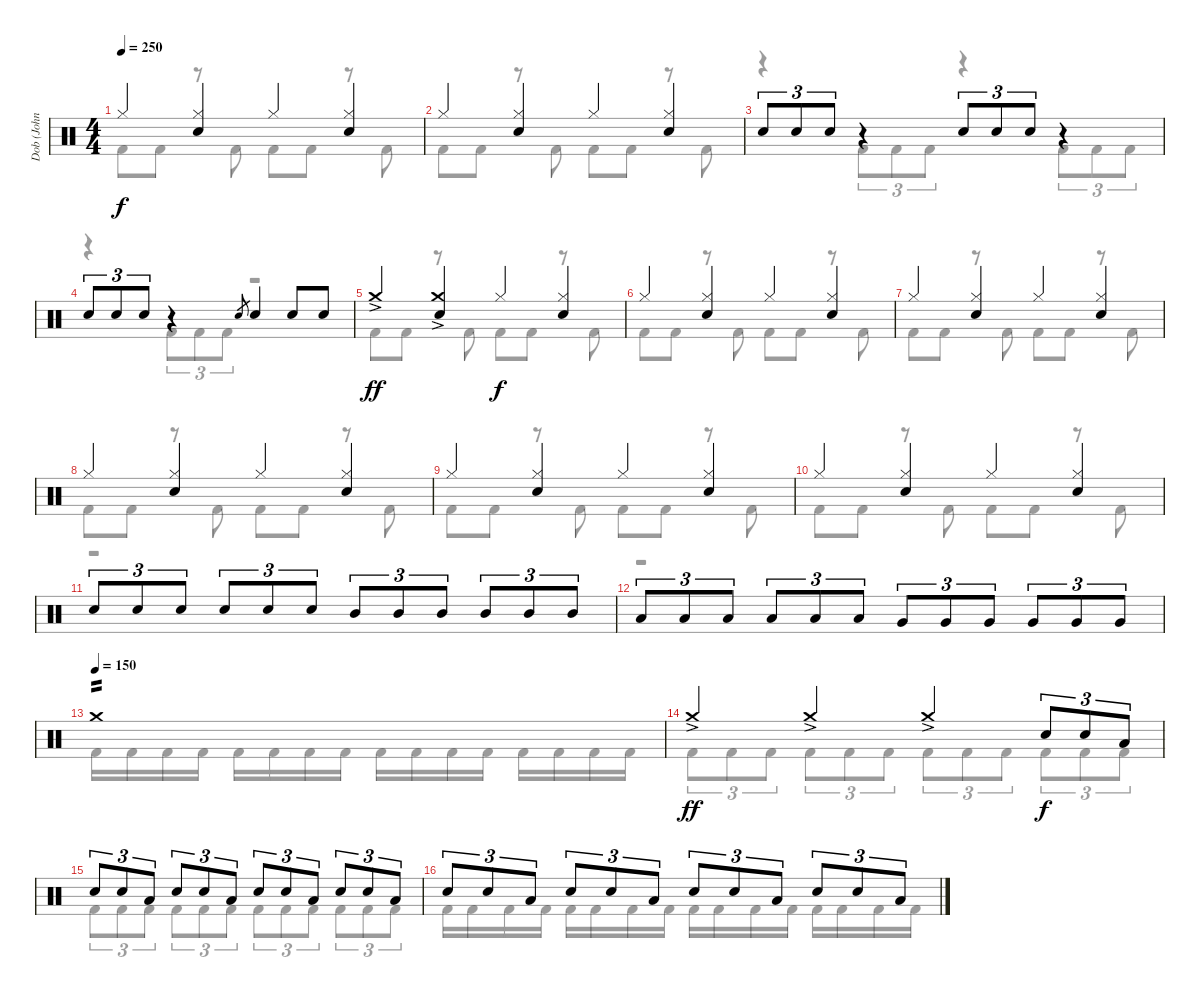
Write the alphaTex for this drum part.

\track ("Dob (John Macaluso)" "Dob (John ") {instrument percussion}
\staff {score}
\articulation defaults
\voice
\ts (4 4)
\tempo 250
\clef neutral
\ks c "Hi-Hat (closed)".4{dy f}
("Hi-Hat (closed)" "Electric Snare (hit)").4 "Hi-Hat (closed)".4 ("Hi-Hat (closed)" "Electric Snare (hit)").4 |
"Hi-Hat (closed)".4 ("Hi-Hat (closed)" "Electric Snare (hit)").4 "Hi-Hat (closed)".4 ("Hi-Hat (closed)" "Electric Snare (hit)").4 |
"Electric Snare (hit)".8{tu (3 2)} "Electric Snare (hit)".8{tu (3 2)} "Electric Snare (hit)".8{tu (3 2)} r.4 "Electric Snare (hit)".8{tu (3 2)} "Electric Snare (hit)".8{tu (3 2)} "Electric Snare (hit)".8{tu (3 2)} r.4 |
"Electric Snare (hit)".8{tu (3 2)} "Electric Snare (hit)".8{tu (3 2)} "Electric Snare (hit)".8{tu (3 2)} r.4 "Electric Snare (hit)".8{gr} "Electric Snare (hit)".4 "Electric Snare (hit)".8 "Electric Snare (hit)".8 |
"Crash medium (hit)"{ac}.4{dy ff} ("Crash medium (hit)"{ac} "Electric Snare (hit)").4 "Hi-Hat (closed)".4{dy f} ("Hi-Hat (closed)" "Electric Snare (hit)").4 |
"Hi-Hat (closed)".4 ("Hi-Hat (closed)" "Electric Snare (hit)").4 "Hi-Hat (closed)".4 ("Hi-Hat (closed)" "Electric Snare (hit)").4 |
"Hi-Hat (closed)".4 ("Hi-Hat (closed)" "Electric Snare (hit)").4 "Hi-Hat (closed)".4 ("Hi-Hat (closed)" "Electric Snare (hit)").4 |
"Hi-Hat (closed)".4 ("Hi-Hat (closed)" "Electric Snare (hit)").4 "Hi-Hat (closed)".4 ("Hi-Hat (closed)" "Electric Snare (hit)").4 |
"Hi-Hat (closed)".4 ("Hi-Hat (closed)" "Electric Snare (hit)").4 "Hi-Hat (closed)".4 ("Hi-Hat (closed)" "Electric Snare (hit)").4 |
"Hi-Hat (closed)".4 ("Hi-Hat (closed)" "Electric Snare (hit)").4 "Hi-Hat (closed)".4 ("Hi-Hat (closed)" "Electric Snare (hit)").4 |
"Electric Snare (hit)".8{tu (3 2)} "Electric Snare (hit)".8{tu (3 2)} "Electric Snare (hit)".8{tu (3 2)} "Electric Snare (hit)".8{tu (3 2)} "Electric Snare (hit)".8{tu (3 2)} "Electric Snare (hit)".8{tu (3 2)} "Mid Tom (hit)".8{tu (3 2)} "Mid Tom (hit)".8{tu (3 2)} "Mid Tom (hit)".8{tu (3 2)} "Mid Tom (hit)".8{tu (3 2)} "Mid Tom (hit)".8{tu (3 2)} "Mid Tom (hit)".8{tu (3 2)} |
"Low Tom (hit)".8{tu (3 2)} "Low Tom (hit)".8{tu (3 2)} "Low Tom (hit)".8{tu (3 2)} "Low Tom (hit)".8{tu (3 2)} "Low Tom (hit)".8{tu (3 2)} "Low Tom (hit)".8{tu (3 2)} "Very Low Tom (hit)".8{tu (3 2)} "Very Low Tom (hit)".8{tu (3 2)} "Very Low Tom (hit)".8{tu (3 2)} "Very Low Tom (hit)".8{tu (3 2)} "Very Low Tom (hit)".8{tu (3 2)} "Very Low Tom (hit)".8{tu (3 2)} |
\tempo (150)
"Crash medium (hit)".1{tp 2} |
"Crash medium (hit)"{ac}.4{dy ff} "Crash medium (hit)"{ac}.4 "Crash medium (hit)"{ac}.4 "Electric Snare (hit)".8{tu (3 2) dy f} "Electric Snare (hit)".8{tu (3 2)} "Low Tom (hit)".8{tu (3 2)} |
"Electric Snare (hit)".8{tu (3 2)} "Electric Snare (hit)".8{tu (3 2)} "Low Tom (hit)".8{tu (3 2)} "Electric Snare (hit)".8{tu (3 2)} "Electric Snare (hit)".8{tu (3 2)} "Low Tom (hit)".8{tu (3 2)} "Electric Snare (hit)".8{tu (3 2)} "Electric Snare (hit)".8{tu (3 2)} "Low Tom (hit)".8{tu (3 2)} "Electric Snare (hit)".8{tu (3 2)} "Electric Snare (hit)".8{tu (3 2)} "Low Tom (hit)".8{tu (3 2)} |
"Electric Snare (hit)".8{tu (3 2)} "Electric Snare (hit)".8{tu (3 2)} "Low Tom (hit)".8{tu (3 2)} "Electric Snare (hit)".8{tu (3 2)} "Electric Snare (hit)".8{tu (3 2)} "Low Tom (hit)".8{tu (3 2)} "Electric Snare (hit)".8{tu (3 2)} "Electric Snare (hit)".8{tu (3 2)} "Low Tom (hit)".8{tu (3 2)} "Electric Snare (hit)".8{tu (3 2)} "Electric Snare (hit)".8{tu (3 2)} "Low Tom (hit)".8{tu (3 2)}
\voice
\clef neutral
\ottava regular
\simile none
\ks c "Kick (hit) 2".8{dy f} "Kick (hit) 2".8
r.8 "Kick (hit) 2".8 "Kick (hit) 2".8 "Kick (hit) 2".8 r.8 "Kick (hit) 2".8 |
"Kick (hit) 2".8 "Kick (hit) 2".8 r.8 "Kick (hit) 2".8 "Kick (hit) 2".8 "Kick (hit) 2".8 r.8 "Kick (hit) 2".8 |
r.4 "Kick (hit) 2".8{tu (3 2)} "Kick (hit) 2".8{tu (3 2)} "Kick (hit) 2".8{tu (3 2)} r.4 "Kick (hit) 2".8{tu (3 2)} "Kick (hit) 2".8{tu (3 2)} "Kick (hit) 2".8{tu (3 2)} |
r.4 "Kick (hit) 2".8{tu (3 2)} "Kick (hit) 2".8{tu (3 2)} "Kick (hit) 2".8{tu (3 2)} r.2 |
"Kick (hit) 2".8 "Kick (hit) 2".8 r.8 "Kick (hit) 2".8 "Kick (hit) 2".8 "Kick (hit) 2".8 r.8 "Kick (hit) 2".8 |
"Kick (hit) 2".8 "Kick (hit) 2".8 r.8 "Kick (hit) 2".8 "Kick (hit) 2".8 "Kick (hit) 2".8 r.8 "Kick (hit) 2".8 |
"Kick (hit) 2".8 "Kick (hit) 2".8 r.8 "Kick (hit) 2".8 "Kick (hit) 2".8 "Kick (hit) 2".8 r.8 "Kick (hit) 2".8 |
"Kick (hit) 2".8 "Kick (hit) 2".8 r.8 "Kick (hit) 2".8 "Kick (hit) 2".8 "Kick (hit) 2".8 r.8 "Kick (hit) 2".8 |
"Kick (hit) 2".8 "Kick (hit) 2".8 r.8 "Kick (hit) 2".8 "Kick (hit) 2".8 "Kick (hit) 2".8 r.8 "Kick (hit) 2".8 |
"Kick (hit) 2".8 "Kick (hit) 2".8 r.8 "Kick (hit) 2".8 "Kick (hit) 2".8 "Kick (hit) 2".8 r.8 "Kick (hit) 2".8 |
r.1 |
r.1 |
"Kick (hit) 2".16 "Kick (hit) 2".16 "Kick (hit) 2".16 "Kick (hit) 2".16 "Kick (hit) 2".16 "Kick (hit) 2".16 "Kick (hit) 2".16 "Kick (hit) 2".16 "Kick (hit) 2".16 "Kick (hit) 2".16 "Kick (hit) 2".16 "Kick (hit) 2".16 "Kick (hit) 2".16 "Kick (hit) 2".16 "Kick (hit) 2".16 "Kick (hit) 2".16 |
"Kick (hit) 2".8{tu (3 2)} "Kick (hit) 2".8{tu (3 2)} "Kick (hit) 2".8{tu (3 2)} "Kick (hit) 2".8{tu (3 2)} "Kick (hit) 2".8{tu (3 2)} "Kick (hit) 2".8{tu (3 2)} "Kick (hit) 2".8{tu (3 2)} "Kick (hit) 2".8{tu (3 2)} "Kick (hit) 2".8{tu (3 2)} "Kick (hit) 2".8{tu (3 2)} "Kick (hit) 2".8{tu (3 2)} "Kick (hit) 2".8{tu (3 2)} |
"Kick (hit) 2".8{tu (3 2)} "Kick (hit) 2".8{tu (3 2)} "Kick (hit) 2".8{tu (3 2)} "Kick (hit) 2".8{tu (3 2)} "Kick (hit) 2".8{tu (3 2)} "Kick (hit) 2".8{tu (3 2)} "Kick (hit) 2".8{tu (3 2)} "Kick (hit) 2".8{tu (3 2)} "Kick (hit) 2".8{tu (3 2)} "Kick (hit) 2".8{tu (3 2)} "Kick (hit) 2".8{tu (3 2)} "Kick (hit) 2".8{tu (3 2)} |
"Kick (hit) 2".16 "Kick (hit) 2".16 "Kick (hit) 2".16 "Kick (hit) 2".16 "Kick (hit) 2".16 "Kick (hit) 2".16 "Kick (hit) 2".16 "Kick (hit) 2".16 "Kick (hit) 2".16 "Kick (hit) 2".16 "Kick (hit) 2".16 "Kick (hit) 2".16 "Kick (hit) 2".16 "Kick (hit) 2".16 "Kick (hit) 2".16 "Kick (hit) 2".16
